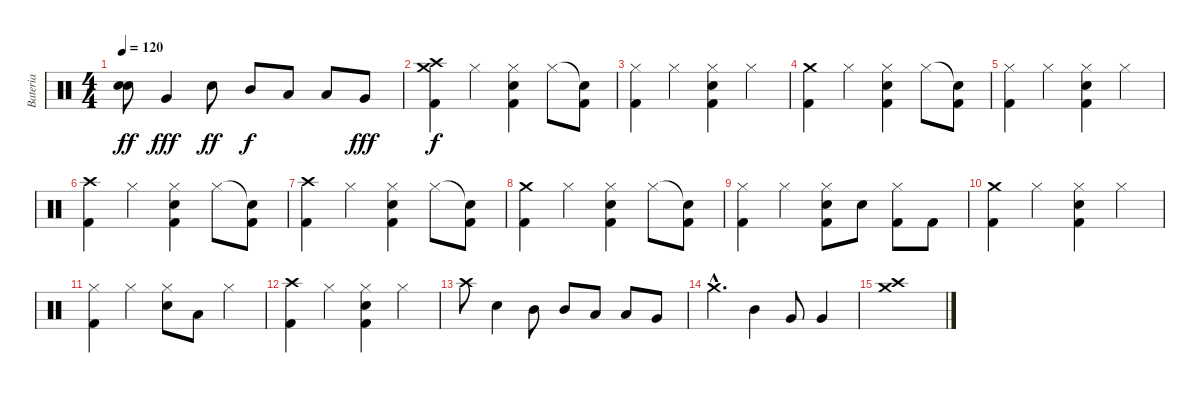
\track ("Bateria" "Bateria") {instrument percussion}
\staff {score}
\articulation defaults
\ts (4 4)
\tempo 120
\clef neutral
\ks c
("Electric Snare (hit)" "Electric Snare (hit)").8{dy ff} "Very Low Tom (hit)".4{dy fff balance 4} "Electric Snare (hit)".8{dy ff balance 8} "Mid Tom (hit)".8{dy f balance 9} "Low Tom (hit)".8 "Low Tom (hit)".8 "Very Low Tom (hit)".8{dy fff balance 4} |
("Crash medium (hit)" "Crash high (hit)" "Kick (hit) 2").4{dy f balance 8} "Hi-Hat (closed)".4 ("Hi-Hat (closed)" "Electric Snare (hit)" "Kick (hit) 2").4 "Hi-Hat (closed)".8 ("Snare (hit)"{t} "Kick (hit) 2").8 |
("Hi-Hat (closed)" "Kick (hit) 2").4 "Hi-Hat (closed)".4 ("Hi-Hat (closed)" "Electric Snare (hit)" "Kick (hit) 2").4 "Hi-Hat (closed)".4 |
("Crash medium (hit)" "Kick (hit) 2").4 "Hi-Hat (closed)".4 ("Hi-Hat (closed)" "Electric Snare (hit)" "Kick (hit) 2").4 "Hi-Hat (closed)".8 ("Snare (hit)"{t} "Kick (hit) 2").8 |
("Hi-Hat (closed)" "Kick (hit) 2").4 "Hi-Hat (closed)".4 ("Hi-Hat (closed)" "Electric Snare (hit)" "Kick (hit) 2").4 "Hi-Hat (closed)".4 |
("Crash high (hit)" "Kick (hit) 2").4 "Hi-Hat (closed)".4 ("Hi-Hat (closed)" "Electric Snare (hit)" "Kick (hit) 2").4 "Hi-Hat (closed)".8 ("Snare (hit)"{t} "Kick (hit) 2").8 |
("Crash high (hit)" "Kick (hit) 2").4 "Hi-Hat (closed)".4 ("Hi-Hat (closed)" "Electric Snare (hit)" "Kick (hit) 2").4 "Hi-Hat (closed)".8 ("Snare (hit)"{t} "Kick (hit) 2").8 |
("Crash medium (hit)" "Kick (hit) 2").4 "Hi-Hat (closed)".4 ("Hi-Hat (closed)" "Electric Snare (hit)" "Kick (hit) 2").4 "Hi-Hat (closed)".8 ("Snare (hit)"{t} "Kick (hit) 2").8 |
("Hi-Hat (closed)" "Kick (hit) 2").4 "Hi-Hat (closed)".4 ("Hi-Hat (closed)" "Electric Snare (hit)" "Kick (hit) 2").8 "Electric Snare (hit)".8 ("Hi-Hat (closed)" "Kick (hit) 2").8 "Kick (hit) 2".8 |
("Crash medium (hit)" "Kick (hit) 2").4 "Hi-Hat (closed)".4 ("Hi-Hat (closed)" "Electric Snare (hit)" "Kick (hit) 2").4 "Hi-Hat (closed)".4 |
("Hi-Hat (closed)" "Kick (hit) 2").4 "Hi-Hat (closed)".4 ("Hi-Hat (closed)" "Electric Snare (hit)").8 "Low Tom (hit)".8 "Hi-Hat (closed)".4 |
("Crash high (hit)" "Kick (hit) 2").4 "Hi-Hat (closed)".4 ("Hi-Hat (closed)" "Electric Snare (hit)" "Kick (hit) 2").4 "Hi-Hat (closed)".4 |
"Crash high (hit)".8 "Electric Snare (hit)".4 "Mid Tom (hit)".8{balance 10} "Mid Tom (hit)".8 "Low Tom (hit)".8{balance 5} "Low Tom (hit)".8 "Very Low Tom (hit)".8 |
"Crash medium (hit)"{hac}.4{d balance 8} "Mid Tom (hit)".4{balance 10} "Very Low Tom (hit)".8{balance 5} "Very Low Tom (hit)".4 |
("Crash medium (hit)" "Crash high (hit)").1{balance 8}
